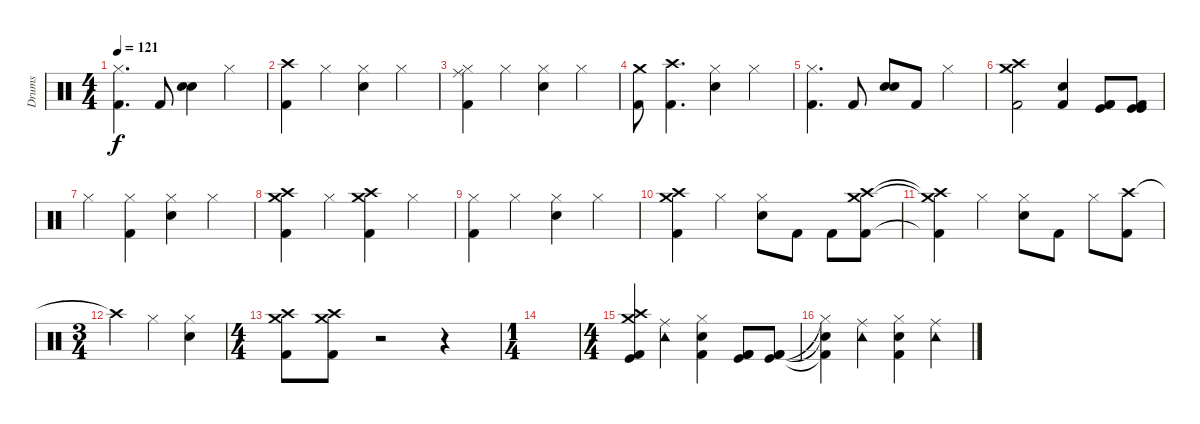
\track ("Drums" "Drums") {instrument percussion}
\staff {score}
\articulation defaults
\ts (4 4)
\tempo 121
\clef neutral
\ks c
("Hi-Hat (closed)" "Kick (hit) 2").4{d dy f} "Kick (hit) 2".8 ("Electric Snare (hit)" "Snare (hit) 2").4 "Hi-Hat (closed)".4 |
("Crash high (hit)" "Kick (hit) 2").4 "Hi-Hat (closed)".4 ("Hi-Hat (closed)" "Electric Snare (hit)").4 "Hi-Hat (closed)".4 |
("Hi-Hat (closed)" "Ride (middle)" "Kick (hit) 2").4 "Hi-Hat (closed)".4 ("Hi-Hat (closed)" "Electric Snare (hit)").4 "Hi-Hat (closed)".4 |
("Crash medium (hit)" "Kick (hit) 2").8 ("Crash high (hit)" "Kick (hit) 2").4{d} ("Hi-Hat (closed)" "Electric Snare (hit)").4 "Hi-Hat (closed)".4 |
("Hi-Hat (closed)" "Kick (hit) 2").4{d} "Kick (hit) 2".8 ("Electric Snare (hit)" "Snare (hit) 2").8 "Kick (hit) 2".8 "Hi-Hat (closed)".4 |
("Crash high (hit)" "Crash medium (hit)" "Kick (hit) 2").2 ("Snare (hit) 2" "Kick (hit) 2").4 ("Kick (hit)" "Kick (hit) 2" "Kick (hit) 2").8 ("Kick (hit)" "Kick (hit) 2" "Kick (hit)").8 |
"Hi-Hat (closed)".4 ("Hi-Hat (closed)" "Kick (hit) 2").4 ("Hi-Hat (closed)" "Snare (hit) 2").4 "Hi-Hat (closed)".4 |
("Crash high (hit)" "Crash medium (hit)" "Kick (hit) 2").4 "Hi-Hat (closed)".4 ("Crash high (hit)" "Crash medium (hit)" "Kick (hit) 2").4 "Hi-Hat (closed)".4 |
("Hi-Hat (closed)" "Kick (hit) 2").4 "Hi-Hat (closed)".4 ("Hi-Hat (closed)" "Snare (hit) 2").4 "Hi-Hat (closed)".4 |
("Crash high (hit)" "Crash medium (hit)" "Kick (hit) 2").4 "Hi-Hat (closed)".4 ("Hi-Hat (closed)" "Snare (hit) 2").8 "Kick (hit) 2".8 "Kick (hit) 2".8 ("Crash high (hit)" "Crash medium (hit)" "Kick (hit) 2").8 |
("Crash high (hit)"{t} "Crash medium (hit)"{t} "Kick (hit) 2"{t}).4 "Hi-Hat (closed)".4 ("Hi-Hat (closed)" "Snare (hit) 2").8 "Kick (hit) 2".8 "Hi-Hat (closed)".8 ("Crash high (hit)" "Kick (hit) 2").8 |
\ts (3 4)
"Crash high (hit)"{t}.4 "Hi-Hat (closed)".4 ("Hi-Hat (closed)" "Snare (hit) 2").4 |
\ts (4 4)
("Crash medium (hit)" "Kick (hit) 2" "Crash high (hit)").8 ("Crash medium (hit)" "Kick (hit) 2" "Crash high (hit)").8 r.2 r.4 |
\ts (1 4)
|
\ts (4 4)
("Crash high (hit)" "Kick (hit)" "Crash medium (hit)" "Kick (hit) 2").4 ("Tambourine (hit)" "Ride (middle)").4 ("Hi-Hat (closed)" "Snare (hit) 2" "Kick (hit) 2").4 ("Kick (hit) 2" "Kick (hit)" "Kick (hit) 2").8 ("Kick (hit) 2" "Kick (hit)" "Kick (hit) 2").8 |
("Hi-Hat (closed)"{t} "Kick (hit) 2"{t} "Snare (hit)"{t}).4 ("Ride (middle)" "Tambourine (hit)").4 ("Hi-Hat (closed)" "Snare (hit) 2" "Kick (hit) 2").4 ("Ride (middle)" "Tambourine (hit)").4
